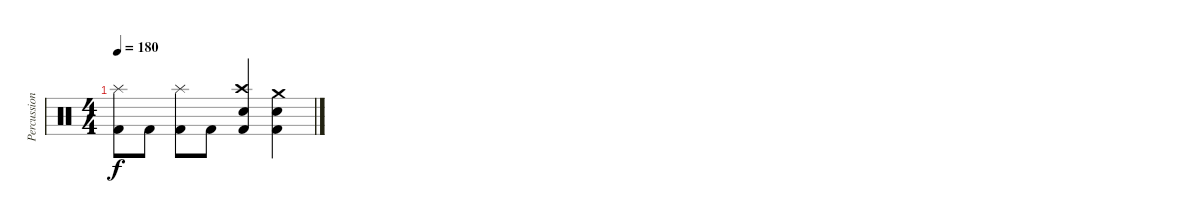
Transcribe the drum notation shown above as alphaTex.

\track ("Percussion" "Percussion") {instrument percussion}
\staff {score}
\articulation defaults
\ts (4 4)
\tempo 180
\clef neutral
\ks c
("Splash (hit)" "Kick (hit) 2").8{dy f} "Kick (hit) 2".8 ("Splash (hit)" "Kick (hit) 2").8 "Kick (hit) 2".8 ("Crash high (hit)" "Electric Snare (hit)" "Kick (hit) 2").4 ("Crash medium (hit)" "Electric Snare (hit)" "Kick (hit) 2").4
